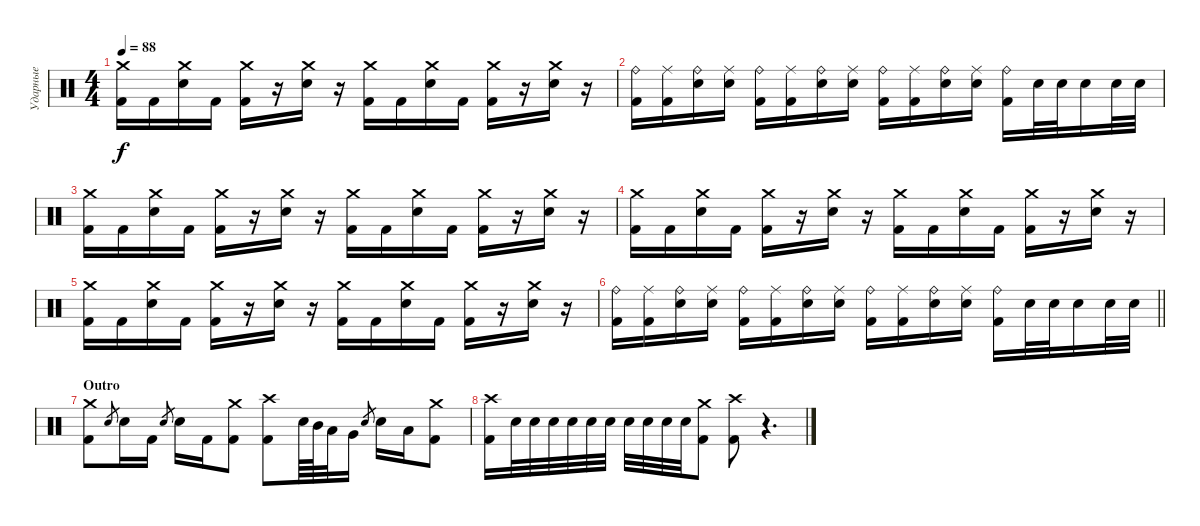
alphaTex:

\track ("Ударные" "Ударные") {instrument percussion}
\staff {score}
\articulation defaults
\ts (4 4)
\tempo 88
\clef neutral
\ks c
("Crash medium (hit)" "Kick (hit) 2").16{dy f} "Kick (hit) 2".16 ("Crash medium (hit)" "Electric Snare (hit)").16 "Kick (hit) 2".16 ("Crash medium (hit)" "Kick (hit) 2").16 r.16 ("Crash medium (hit)" "Electric Snare (hit)").16 r.16 ("Crash medium (hit)" "Kick (hit) 2").16 "Kick (hit) 2".16 ("Crash medium (hit)" "Electric Snare (hit)").16 "Kick (hit) 2".16 ("Crash medium (hit)" "Kick (hit) 2").16 r.16 ("Crash medium (hit)" "Electric Snare (hit)").16 r.16 |
("Ride (bell)" "Kick (hit) 2").16 ("Ride (middle)" "Kick (hit) 2").16 ("Ride (bell)" "Electric Snare (hit)").16 ("Ride (middle)" "Electric Snare (hit)").16 ("Ride (bell)" "Kick (hit) 2").16 ("Ride (middle)" "Kick (hit) 2").16 ("Ride (bell)" "Electric Snare (hit)").16 ("Ride (middle)" "Electric Snare (hit)").16 ("Ride (bell)" "Kick (hit) 2").16 ("Ride (middle)" "Kick (hit) 2").16 ("Ride (bell)" "Electric Snare (hit)").16 ("Ride (middle)" "Electric Snare (hit)").16 ("Ride (bell)" "Kick (hit) 2").16 "Electric Snare (hit)".32 "Electric Snare (hit)".32 "Electric Snare (hit)".16 "Electric Snare (hit)".32 "Electric Snare (hit)".32 |
("Crash medium (hit)" "Kick (hit) 2").16 "Kick (hit) 2".16 ("Crash medium (hit)" "Electric Snare (hit)").16 "Kick (hit) 2".16 ("Crash medium (hit)" "Kick (hit) 2").16 r.16 ("Crash medium (hit)" "Electric Snare (hit)").16 r.16 ("Crash medium (hit)" "Kick (hit) 2").16 "Kick (hit) 2".16 ("Crash medium (hit)" "Electric Snare (hit)").16 "Kick (hit) 2".16 ("Crash medium (hit)" "Kick (hit) 2").16 r.16 ("Crash medium (hit)" "Electric Snare (hit)").16 r.16 |
("Crash medium (hit)" "Kick (hit) 2").16 "Kick (hit) 2".16 ("Crash medium (hit)" "Electric Snare (hit)").16 "Kick (hit) 2".16 ("Crash medium (hit)" "Kick (hit) 2").16 r.16 ("Crash medium (hit)" "Electric Snare (hit)").16 r.16 ("Crash medium (hit)" "Kick (hit) 2").16 "Kick (hit) 2".16 ("Crash medium (hit)" "Electric Snare (hit)").16 "Kick (hit) 2".16 ("Crash medium (hit)" "Kick (hit) 2").16 r.16 ("Crash medium (hit)" "Electric Snare (hit)").16 r.16 |
("Crash medium (hit)" "Kick (hit) 2").16 "Kick (hit) 2".16 ("Crash medium (hit)" "Electric Snare (hit)").16 "Kick (hit) 2".16 ("Crash medium (hit)" "Kick (hit) 2").16 r.16 ("Crash medium (hit)" "Electric Snare (hit)").16 r.16 ("Crash medium (hit)" "Kick (hit) 2").16 "Kick (hit) 2".16 ("Crash medium (hit)" "Electric Snare (hit)").16 "Kick (hit) 2".16 ("Crash medium (hit)" "Kick (hit) 2").16 r.16 ("Crash medium (hit)" "Electric Snare (hit)").16 r.16 |
\barLineRight lightlight
("Ride (bell)" "Kick (hit) 2").16 ("Ride (middle)" "Kick (hit) 2").16 ("Ride (bell)" "Electric Snare (hit)").16 ("Ride (middle)" "Electric Snare (hit)").16 ("Ride (bell)" "Kick (hit) 2").16 ("Ride (middle)" "Kick (hit) 2").16 ("Ride (bell)" "Electric Snare (hit)").16 ("Ride (middle)" "Electric Snare (hit)").16 ("Ride (bell)" "Kick (hit) 2").16 ("Ride (middle)" "Kick (hit) 2").16 ("Ride (bell)" "Electric Snare (hit)").16 ("Ride (middle)" "Electric Snare (hit)").16 ("Ride (bell)" "Kick (hit) 2").16 "Electric Snare (hit)".32 "Electric Snare (hit)".32 "Electric Snare (hit)".16 "Electric Snare (hit)".32 "Electric Snare (hit)".32 |
\section ("" "Outro")
("Crash medium (hit)" "Kick (hit) 2").8 "Electric Snare (hit)".8{gr} "Electric Snare (hit)".16 "Kick (hit) 2".16 "Electric Snare (hit)".8{gr} "Electric Snare (hit)".16 "Kick (hit) 2".16 ("Crash medium (hit)" "Kick (hit) 2").8 ("Crash high (hit)" "Kick (hit) 2").8 "Electric Snare (hit)".64 "Mid Tom (hit)".64 "Low Tom (hit)".32 "Very Low Tom (hit)".16 "Electric Snare (hit)".8{gr} "Electric Snare (hit)".16 "Low Floor Tom (hit)".16 ("Crash medium (hit)" "Kick (hit) 2").8 |
("Crash high (hit)" "Kick (hit) 2").16 "Electric Snare (hit)".32 "Electric Snare (hit)".32 "Electric Snare (hit)".32 "Electric Snare (hit)".32 "Electric Snare (hit)".32 "Electric Snare (hit)".32 "Electric Snare (hit)".32 "Electric Snare (hit)".32 "Electric Snare (hit)".32 "Electric Snare (hit)".32 ("Crash medium (hit)" "Kick (hit) 2").8 ("Crash high (hit)" "Kick (hit) 2").8 r.4{d}
